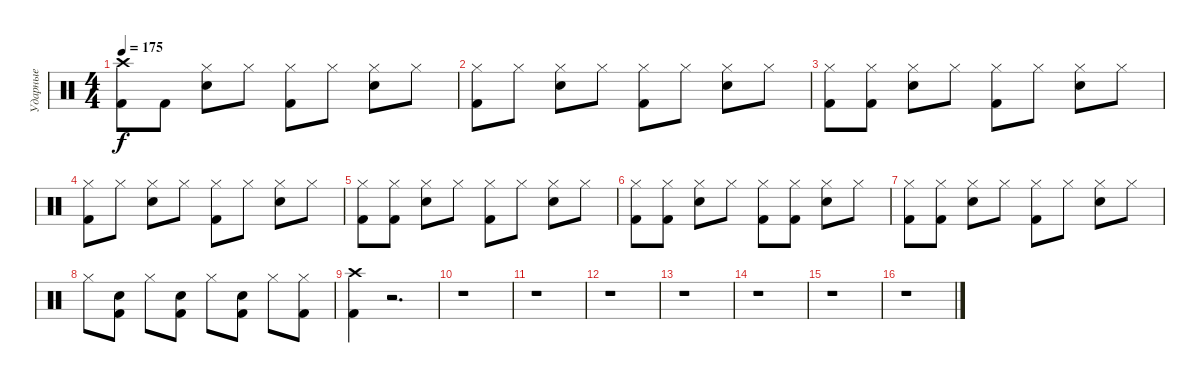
\track ("Ударные" "Ударные") {instrument percussion}
\staff
\articulation defaults
\ts (4 4)
\tempo 175
\clef neutral
\ks c
("Kick (hit) 2" "Crash high (hit)").8{dy f} "Kick (hit) 2".8 ("Snare (hit) 2" "Hi-Hat (closed)").8 "Hi-Hat (closed)".8 ("Kick (hit) 2" "Hi-Hat (closed)").8 "Hi-Hat (closed)".8 ("Snare (hit) 2" "Hi-Hat (closed)").8 "Hi-Hat (closed)".8 |
("Kick (hit) 2" "Hi-Hat (closed)").8 "Hi-Hat (closed)".8 ("Snare (hit) 2" "Hi-Hat (closed)").8 "Hi-Hat (closed)".8 ("Kick (hit) 2" "Hi-Hat (closed)").8 "Hi-Hat (closed)".8 ("Snare (hit) 2" "Hi-Hat (closed)").8 "Hi-Hat (closed)".8 |
("Kick (hit) 2" "Hi-Hat (closed)").8 ("Kick (hit) 2" "Hi-Hat (closed)").8 ("Snare (hit) 2" "Hi-Hat (closed)").8 "Hi-Hat (closed)".8 ("Kick (hit) 2" "Hi-Hat (closed)").8 "Hi-Hat (closed)".8 ("Snare (hit) 2" "Hi-Hat (closed)").8 "Hi-Hat (closed)".8 |
("Kick (hit) 2" "Hi-Hat (closed)").8 "Hi-Hat (closed)".8 ("Snare (hit) 2" "Hi-Hat (closed)").8 "Hi-Hat (closed)".8 ("Kick (hit) 2" "Hi-Hat (closed)").8 "Hi-Hat (closed)".8 ("Snare (hit) 2" "Hi-Hat (closed)").8 "Hi-Hat (closed)".8 |
("Kick (hit) 2" "Hi-Hat (closed)").8 ("Kick (hit) 2" "Hi-Hat (closed)").8 ("Snare (hit) 2" "Hi-Hat (closed)").8 "Hi-Hat (closed)".8 ("Kick (hit) 2" "Hi-Hat (closed)").8 "Hi-Hat (closed)".8 ("Snare (hit) 2" "Hi-Hat (closed)").8 "Hi-Hat (closed)".8 |
("Kick (hit) 2" "Hi-Hat (closed)").8 ("Kick (hit) 2" "Hi-Hat (closed)").8 ("Snare (hit) 2" "Hi-Hat (closed)").8 "Hi-Hat (closed)".8 ("Kick (hit) 2" "Hi-Hat (closed)").8 ("Kick (hit) 2" "Hi-Hat (closed)").8 ("Snare (hit) 2" "Hi-Hat (closed)").8 "Hi-Hat (closed)".8 |
("Kick (hit) 2" "Hi-Hat (closed)").8 ("Kick (hit) 2" "Hi-Hat (closed)").8 ("Snare (hit) 2" "Hi-Hat (closed)").8 "Hi-Hat (closed)".8 ("Kick (hit) 2" "Hi-Hat (closed)").8 "Hi-Hat (closed)".8 ("Snare (hit) 2" "Hi-Hat (closed)").8 "Hi-Hat (closed)".8 |
"Hi-Hat (closed)".8 ("Kick (hit) 2" "Electric Snare (hit)").8 "Hi-Hat (closed)".8 ("Kick (hit) 2" "Electric Snare (hit)").8 "Hi-Hat (closed)".8 ("Kick (hit) 2" "Electric Snare (hit)").8 "Hi-Hat (closed)".8 ("Kick (hit) 2" "Hi-Hat (closed)").8 |
("Kick (hit) 2" "Crash high (hit)").4 r.2{d} |
r.1 |
r.1 |
r.1 |
r.1 |
r.1 |
r.1 |
r.1
